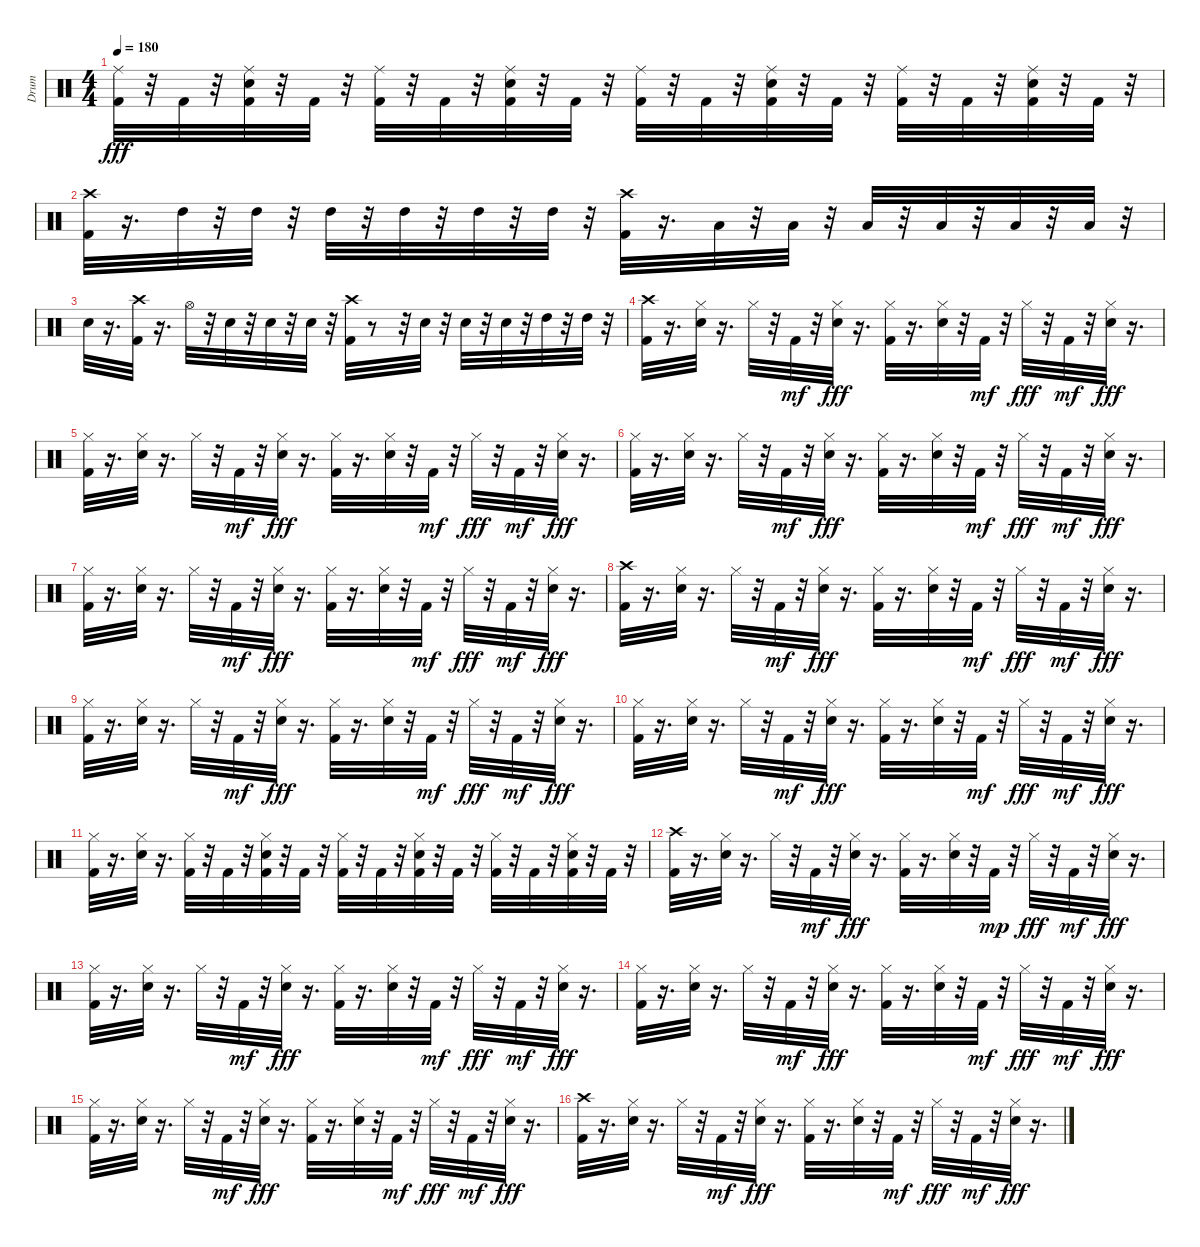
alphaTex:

\track ("Drum" "Drum") {instrument percussion}
\staff {score}
\articulation defaults
\ts (4 4)
\tempo 180
\clef neutral
\ks c
("Ride (middle)" "Kick (hit) 2").32{dy fff} r.32 "Kick (hit) 2".32 r.32 ("Ride (middle)" "Kick (hit) 2" "Snare (hit) 2").32 r.32 "Kick (hit) 2".32 r.32 ("Ride (middle)" "Kick (hit) 2").32 r.32 "Kick (hit) 2".32 r.32 ("Ride (middle)" "Kick (hit) 2" "Snare (hit) 2").32 r.32 "Kick (hit) 2".32 r.32 ("Ride (middle)" "Kick (hit) 2").32 r.32 "Kick (hit) 2".32 r.32 ("Ride (middle)" "Kick (hit) 2" "Snare (hit) 2").32 r.32 "Kick (hit) 2".32 r.32 ("Ride (middle)" "Kick (hit) 2").32 r.32 "Kick (hit) 2".32 r.32 ("Ride (middle)" "Kick (hit) 2" "Snare (hit) 2").32 r.32 "Kick (hit) 2".32 r.32 |
("Kick (hit) 2" "Crash high (hit)").32 r.16{d} "High Tom (hit)".32 r.32 "High Tom (hit)".32 r.32 "High Tom (hit)".32 r.32 "High Tom (hit)".32 r.32 "High Tom (hit)".32 r.32 "High Tom (hit)".32 r.32 ("Kick (hit) 2" "Crash high (hit)").32 r.16{d} "Low Tom (hit)".32 r.32 "Low Tom (hit)".32 r.32 "Low Tom (hit)".32 r.32 "Low Tom (hit)".32 r.32 "Low Tom (hit)".32 r.32 "Low Tom (hit)".32 r.32 |
"Snare (hit) 2".32 r.16{d} ("Kick (hit) 2" "Crash high (hit)").32 r.16{d} "Hi-Hat (open)".32 r.32 "Snare (hit) 2".32 r.32 "Snare (hit) 2".32 r.32 "Snare (hit) 2".32 r.32 ("Kick (hit) 2" "Crash high (hit)").32 r.8 r.32 "Snare (hit) 2".32 r.32 "Snare (hit) 2".32 r.32 "Snare (hit) 2".32 r.32 "High Tom (hit)".32 r.32 "High Tom (hit)".32 r.32 |
("Kick (hit) 2" "Crash high (hit)").32 r.16{d} ("Hi-Hat (closed)" "Snare (hit) 2").32 r.16{d} "Hi-Hat (closed)".32 r.32 "Kick (hit) 2".32{dy mf} r.32 ("Hi-Hat (closed)" "Snare (hit) 2").32{dy fff} r.16{d} ("Kick (hit) 2" "Hi-Hat (closed)").32 r.16{d} ("Hi-Hat (closed)" "Snare (hit) 2").32 r.32 "Kick (hit) 2".32{dy mf} r.32 "Hi-Hat (closed)".32{dy fff} r.32 "Kick (hit) 2".32{dy mf} r.32 ("Hi-Hat (closed)" "Snare (hit) 2").32{dy fff} r.16{d} |
("Kick (hit) 2" "Hi-Hat (closed)").32 r.16{d} ("Hi-Hat (closed)" "Snare (hit) 2").32 r.16{d} "Hi-Hat (closed)".32 r.32 "Kick (hit) 2".32{dy mf} r.32 ("Hi-Hat (closed)" "Snare (hit) 2").32{dy fff} r.16{d} ("Kick (hit) 2" "Hi-Hat (closed)").32 r.16{d} ("Hi-Hat (closed)" "Snare (hit) 2").32 r.32 "Kick (hit) 2".32{dy mf} r.32 "Hi-Hat (closed)".32{dy fff} r.32 "Kick (hit) 2".32{dy mf} r.32 ("Hi-Hat (closed)" "Snare (hit) 2").32{dy fff} r.16{d} |
("Kick (hit) 2" "Hi-Hat (closed)").32 r.16{d} ("Hi-Hat (closed)" "Snare (hit) 2").32 r.16{d} "Hi-Hat (closed)".32 r.32 "Kick (hit) 2".32{dy mf} r.32 ("Hi-Hat (closed)" "Snare (hit) 2").32{dy fff} r.16{d} ("Kick (hit) 2" "Hi-Hat (closed)").32 r.16{d} ("Hi-Hat (closed)" "Snare (hit) 2").32 r.32 "Kick (hit) 2".32{dy mf} r.32 "Hi-Hat (closed)".32{dy fff} r.32 "Kick (hit) 2".32{dy mf} r.32 ("Hi-Hat (closed)" "Snare (hit) 2").32{dy fff} r.16{d} |
("Kick (hit) 2" "Hi-Hat (closed)").32 r.16{d} ("Hi-Hat (closed)" "Snare (hit) 2").32 r.16{d} "Hi-Hat (closed)".32 r.32 "Kick (hit) 2".32{dy mf} r.32 ("Hi-Hat (closed)" "Snare (hit) 2").32{dy fff} r.16{d} ("Kick (hit) 2" "Hi-Hat (closed)").32 r.16{d} ("Hi-Hat (closed)" "Snare (hit) 2").32 r.32 "Kick (hit) 2".32{dy mf} r.32 "Hi-Hat (closed)".32{dy fff} r.32 "Kick (hit) 2".32{dy mf} r.32 ("Hi-Hat (closed)" "Snare (hit) 2").32{dy fff} r.16{d} |
("Kick (hit) 2" "Crash high (hit)").32 r.16{d} ("Hi-Hat (closed)" "Snare (hit) 2").32 r.16{d} "Hi-Hat (closed)".32 r.32 "Kick (hit) 2".32{dy mf} r.32 ("Hi-Hat (closed)" "Snare (hit) 2").32{dy fff} r.16{d} ("Kick (hit) 2" "Hi-Hat (closed)").32 r.16{d} ("Hi-Hat (closed)" "Snare (hit) 2").32 r.32 "Kick (hit) 2".32{dy mf} r.32 "Hi-Hat (closed)".32{dy fff} r.32 "Kick (hit) 2".32{dy mf} r.32 ("Hi-Hat (closed)" "Snare (hit) 2").32{dy fff} r.16{d} |
("Kick (hit) 2" "Hi-Hat (closed)").32 r.16{d} ("Hi-Hat (closed)" "Snare (hit) 2").32 r.16{d} "Hi-Hat (closed)".32 r.32 "Kick (hit) 2".32{dy mf} r.32 ("Hi-Hat (closed)" "Snare (hit) 2").32{dy fff} r.16{d} ("Kick (hit) 2" "Hi-Hat (closed)").32 r.16{d} ("Hi-Hat (closed)" "Snare (hit) 2").32 r.32 "Kick (hit) 2".32{dy mf} r.32 "Hi-Hat (closed)".32{dy fff} r.32 "Kick (hit) 2".32{dy mf} r.32 ("Hi-Hat (closed)" "Snare (hit) 2").32{dy fff} r.16{d} |
("Kick (hit) 2" "Hi-Hat (closed)").32 r.16{d} ("Hi-Hat (closed)" "Snare (hit) 2").32 r.16{d} "Hi-Hat (closed)".32 r.32 "Kick (hit) 2".32{dy mf} r.32 ("Hi-Hat (closed)" "Snare (hit) 2").32{dy fff} r.16{d} ("Kick (hit) 2" "Hi-Hat (closed)").32 r.16{d} ("Hi-Hat (closed)" "Snare (hit) 2").32 r.32 "Kick (hit) 2".32{dy mf} r.32 "Hi-Hat (closed)".32{dy fff} r.32 "Kick (hit) 2".32{dy mf} r.32 ("Hi-Hat (closed)" "Snare (hit) 2").32{dy fff} r.16{d} |
("Kick (hit) 2" "Hi-Hat (closed)").32 r.16{d} ("Snare (hit) 2" "Hi-Hat (closed)").32 r.16{d} ("Kick (hit) 2" "Hi-Hat (closed)").32 r.32 "Kick (hit) 2".32 r.32 ("Kick (hit) 2" "Snare (hit) 2" "Hi-Hat (closed)").32 r.32 "Kick (hit) 2".32 r.32 ("Kick (hit) 2" "Hi-Hat (closed)").32 r.32 "Kick (hit) 2".32 r.32 ("Kick (hit) 2" "Snare (hit) 2" "Hi-Hat (closed)").32 r.32 "Kick (hit) 2".32 r.32 ("Kick (hit) 2" "Hi-Hat (closed)").32 r.32 "Kick (hit) 2".32 r.32 ("Kick (hit) 2" "Snare (hit) 2" "Hi-Hat (closed)").32 r.32 "Kick (hit) 2".32 r.32 |
("Kick (hit) 2" "Crash high (hit)").32 r.16{d} ("Hi-Hat (closed)" "Snare (hit) 2").32 r.16{d} "Hi-Hat (closed)".32 r.32 "Kick (hit) 2".32{dy mf} r.32 ("Hi-Hat (closed)" "Snare (hit) 2").32{dy fff} r.16{d} ("Kick (hit) 2" "Hi-Hat (closed)").32 r.16{d} ("Hi-Hat (closed)" "Snare (hit) 2").32 r.32 "Kick (hit) 2".32{dy mp} r.32 "Hi-Hat (closed)".32{dy fff} r.32 "Kick (hit) 2".32{dy mf} r.32 ("Hi-Hat (closed)" "Snare (hit) 2").32{dy fff} r.16{d} |
("Kick (hit) 2" "Hi-Hat (closed)").32 r.16{d} ("Hi-Hat (closed)" "Snare (hit) 2").32 r.16{d} "Hi-Hat (closed)".32 r.32 "Kick (hit) 2".32{dy mf} r.32 ("Hi-Hat (closed)" "Snare (hit) 2").32{dy fff} r.16{d} ("Kick (hit) 2" "Hi-Hat (closed)").32 r.16{d} ("Hi-Hat (closed)" "Snare (hit) 2").32 r.32 "Kick (hit) 2".32{dy mf} r.32 "Hi-Hat (closed)".32{dy fff} r.32 "Kick (hit) 2".32{dy mf} r.32 ("Hi-Hat (closed)" "Snare (hit) 2").32{dy fff} r.16{d} |
("Kick (hit) 2" "Hi-Hat (closed)").32 r.16{d} ("Hi-Hat (closed)" "Snare (hit) 2").32 r.16{d} "Hi-Hat (closed)".32 r.32 "Kick (hit) 2".32{dy mf} r.32 ("Hi-Hat (closed)" "Snare (hit) 2").32{dy fff} r.16{d} ("Kick (hit) 2" "Hi-Hat (closed)").32 r.16{d} ("Hi-Hat (closed)" "Snare (hit) 2").32 r.32 "Kick (hit) 2".32{dy mf} r.32 "Hi-Hat (closed)".32{dy fff} r.32 "Kick (hit) 2".32{dy mf} r.32 ("Hi-Hat (closed)" "Snare (hit) 2").32{dy fff} r.16{d} |
("Kick (hit) 2" "Hi-Hat (closed)").32 r.16{d} ("Hi-Hat (closed)" "Snare (hit) 2").32 r.16{d} "Hi-Hat (closed)".32 r.32 "Kick (hit) 2".32{dy mf} r.32 ("Hi-Hat (closed)" "Snare (hit) 2").32{dy fff} r.16{d} ("Kick (hit) 2" "Hi-Hat (closed)").32 r.16{d} ("Hi-Hat (closed)" "Snare (hit) 2").32 r.32 "Kick (hit) 2".32{dy mf} r.32 "Hi-Hat (closed)".32{dy fff} r.32 "Kick (hit) 2".32{dy mf} r.32 ("Hi-Hat (closed)" "Snare (hit) 2").32{dy fff} r.16{d} |
("Kick (hit) 2" "Crash high (hit)").32 r.16{d} ("Hi-Hat (closed)" "Snare (hit) 2").32 r.16{d} "Hi-Hat (closed)".32 r.32 "Kick (hit) 2".32{dy mf} r.32 ("Hi-Hat (closed)" "Snare (hit) 2").32{dy fff} r.16{d} ("Kick (hit) 2" "Hi-Hat (closed)").32 r.16{d} ("Hi-Hat (closed)" "Snare (hit) 2").32 r.32 "Kick (hit) 2".32{dy mf} r.32 "Hi-Hat (closed)".32{dy fff} r.32 "Kick (hit) 2".32{dy mf} r.32 ("Hi-Hat (closed)" "Snare (hit) 2").32{dy fff} r.16{d}
